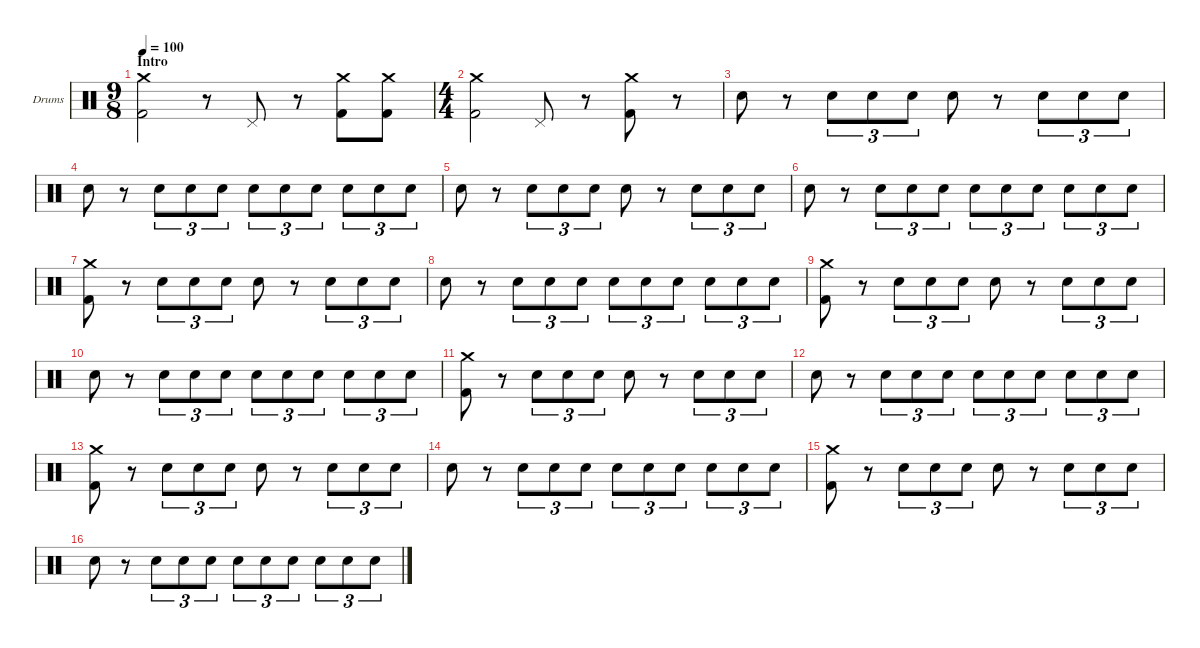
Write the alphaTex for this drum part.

\hideDynamics
\bracketExtendMode nobrackets
\firstSystemTrackNameOrientation horizontal
\otherSystemsTrackNameOrientation horizontal
\track ("Drumkit" "Drums") {instrument percussion}
\staff {score}
\articulation defaults
\ts (9 8)
\section ("" "Intro")
\tempo 100
\clef neutral
\ks c
("Kick (hit) 2" "Crash medium (hit)").2{dy f} r.8 "Pedal Hi-Hat (hit)".8 r.8 ("Crash medium (hit)" "Kick (hit) 2").8 ("Crash medium (hit)" "Kick (hit) 2").8 |
\ts (4 4)
("Kick (hit) 2" "Crash medium (hit)").2 "Pedal Hi-Hat (hit)".8 r.8 ("Kick (hit) 2" "Crash medium (hit)").8 r.8 |
"Snare (hit) 2".8 r.8 "Snare (hit) 2".8{tu (3 2)} "Snare (hit) 2".8{tu (3 2)} "Snare (hit) 2".8{tu (3 2)} "Snare (hit) 2".8 r.8 "Snare (hit) 2".8{tu (3 2)} "Snare (hit) 2".8{tu (3 2)} "Snare (hit) 2".8{tu (3 2)} |
"Snare (hit) 2".8 r.8 "Snare (hit) 2".8{tu (3 2)} "Snare (hit) 2".8{tu (3 2)} "Snare (hit) 2".8{tu (3 2)} "Snare (hit) 2".8{tu (3 2)} "Snare (hit) 2".8{tu (3 2)} "Snare (hit) 2".8{tu (3 2)} "Snare (hit) 2".8{tu (3 2)} "Snare (hit) 2".8{tu (3 2)} "Snare (hit) 2".8{tu (3 2)} |
"Snare (hit) 2".8 r.8 "Snare (hit) 2".8{tu (3 2)} "Snare (hit) 2".8{tu (3 2)} "Snare (hit) 2".8{tu (3 2)} "Snare (hit) 2".8 r.8 "Snare (hit) 2".8{tu (3 2)} "Snare (hit) 2".8{tu (3 2)} "Snare (hit) 2".8{tu (3 2)} |
"Snare (hit) 2".8 r.8 "Snare (hit) 2".8{tu (3 2)} "Snare (hit) 2".8{tu (3 2)} "Snare (hit) 2".8{tu (3 2)} "Snare (hit) 2".8{tu (3 2)} "Snare (hit) 2".8{tu (3 2)} "Snare (hit) 2".8{tu (3 2)} "Snare (hit) 2".8{tu (3 2)} "Snare (hit) 2".8{tu (3 2)} "Snare (hit) 2".8{tu (3 2)} |
("Kick (hit) 2" "Crash medium (hit)").8 r.8 "Snare (hit) 2".8{tu (3 2)} "Snare (hit) 2".8{tu (3 2)} "Snare (hit) 2".8{tu (3 2)} "Snare (hit) 2".8 r.8 "Snare (hit) 2".8{tu (3 2)} "Snare (hit) 2".8{tu (3 2)} "Snare (hit) 2".8{tu (3 2)} |
"Snare (hit) 2".8 r.8 "Snare (hit) 2".8{tu (3 2)} "Snare (hit) 2".8{tu (3 2)} "Snare (hit) 2".8{tu (3 2)} "Snare (hit) 2".8{tu (3 2)} "Snare (hit) 2".8{tu (3 2)} "Snare (hit) 2".8{tu (3 2)} "Snare (hit) 2".8{tu (3 2)} "Snare (hit) 2".8{tu (3 2)} "Snare (hit) 2".8{tu (3 2)} |
("Kick (hit) 2" "Crash medium (hit)").8 r.8 "Snare (hit) 2".8{tu (3 2)} "Snare (hit) 2".8{tu (3 2)} "Snare (hit) 2".8{tu (3 2)} "Snare (hit) 2".8 r.8 "Snare (hit) 2".8{tu (3 2)} "Snare (hit) 2".8{tu (3 2)} "Snare (hit) 2".8{tu (3 2)} |
"Snare (hit) 2".8 r.8 "Snare (hit) 2".8{tu (3 2)} "Snare (hit) 2".8{tu (3 2)} "Snare (hit) 2".8{tu (3 2)} "Snare (hit) 2".8{tu (3 2)} "Snare (hit) 2".8{tu (3 2)} "Snare (hit) 2".8{tu (3 2)} "Snare (hit) 2".8{tu (3 2)} "Snare (hit) 2".8{tu (3 2)} "Snare (hit) 2".8{tu (3 2)} |
("Kick (hit) 2" "Crash medium (hit)").8 r.8 "Snare (hit) 2".8{tu (3 2)} "Snare (hit) 2".8{tu (3 2)} "Snare (hit) 2".8{tu (3 2)} "Snare (hit) 2".8 r.8 "Snare (hit) 2".8{tu (3 2)} "Snare (hit) 2".8{tu (3 2)} "Snare (hit) 2".8{tu (3 2)} |
"Snare (hit) 2".8 r.8 "Snare (hit) 2".8{tu (3 2)} "Snare (hit) 2".8{tu (3 2)} "Snare (hit) 2".8{tu (3 2)} "Snare (hit) 2".8{tu (3 2)} "Snare (hit) 2".8{tu (3 2)} "Snare (hit) 2".8{tu (3 2)} "Snare (hit) 2".8{tu (3 2)} "Snare (hit) 2".8{tu (3 2)} "Snare (hit) 2".8{tu (3 2)} |
("Kick (hit) 2" "Crash medium (hit)").8 r.8 "Snare (hit) 2".8{tu (3 2)} "Snare (hit) 2".8{tu (3 2)} "Snare (hit) 2".8{tu (3 2)} "Snare (hit) 2".8 r.8 "Snare (hit) 2".8{tu (3 2)} "Snare (hit) 2".8{tu (3 2)} "Snare (hit) 2".8{tu (3 2)} |
"Snare (hit) 2".8 r.8 "Snare (hit) 2".8{tu (3 2)} "Snare (hit) 2".8{tu (3 2)} "Snare (hit) 2".8{tu (3 2)} "Snare (hit) 2".8{tu (3 2)} "Snare (hit) 2".8{tu (3 2)} "Snare (hit) 2".8{tu (3 2)} "Snare (hit) 2".8{tu (3 2)} "Snare (hit) 2".8{tu (3 2)} "Snare (hit) 2".8{tu (3 2)} |
("Kick (hit) 2" "Crash medium (hit)").8 r.8 "Snare (hit) 2".8{tu (3 2)} "Snare (hit) 2".8{tu (3 2)} "Snare (hit) 2".8{tu (3 2)} "Snare (hit) 2".8 r.8 "Snare (hit) 2".8{tu (3 2)} "Snare (hit) 2".8{tu (3 2)} "Snare (hit) 2".8{tu (3 2)} |
"Snare (hit) 2".8 r.8 "Snare (hit) 2".8{tu (3 2)} "Snare (hit) 2".8{tu (3 2)} "Snare (hit) 2".8{tu (3 2)} "Snare (hit) 2".8{tu (3 2)} "Snare (hit) 2".8{tu (3 2)} "Snare (hit) 2".8{tu (3 2)} "Snare (hit) 2".8{tu (3 2)} "Snare (hit) 2".8{tu (3 2)} "Snare (hit) 2".8{tu (3 2)}
